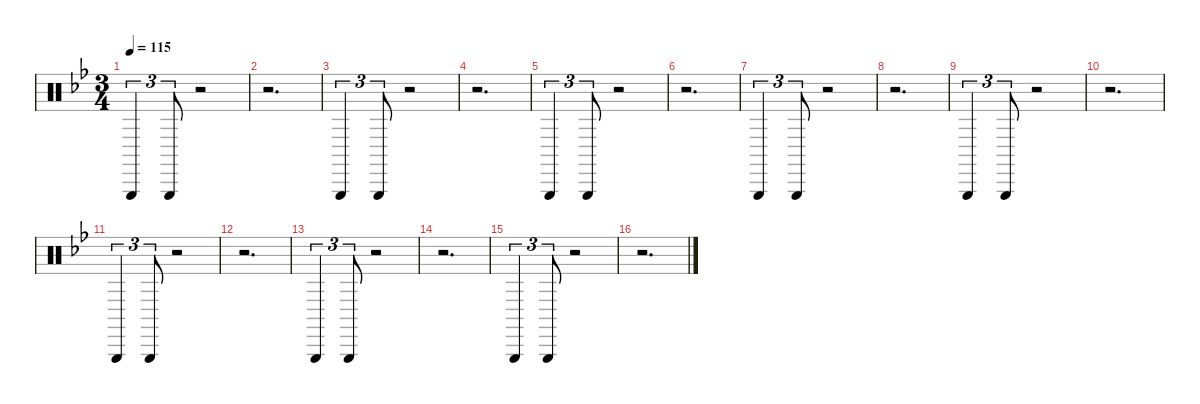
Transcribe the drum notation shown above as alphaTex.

\defaultSystemsLayout 4
\hideDynamics
\bracketExtendMode nobrackets
\singleTrackTrackNamePolicy hidden
\multiTrackTrackNamePolicy hidden
\firstSystemTrackNameMode fullname
\firstSystemTrackNameOrientation horizontal
\otherSystemsTrackNameOrientation horizontal
\track ("Percussion" "drm.") {defaultSystemsLayout 16 instrument percussion}
\staff {score}
\articulation defaults
\ts (3 4)
\tempo 115
\clef neutral
\ks gminor "Triangle (hit)"{acc forcenatural}.4{tu (3 2) dy mf beam Up} "Triangle (hit)"{acc forcenatural}.8{tu (3 2) dy p beam Up}
r.2{beam Up} |
r.2{d beam Down} |
"Triangle (hit)"{acc forcenatural}.4{tu (3 2) dy mf beam Up} "Triangle (hit)"{acc forcenatural}.8{tu (3 2) dy p beam Up} r.2{beam Up} |
r.2{d beam Down} |
"Triangle (hit)"{acc forcenatural}.4{tu (3 2) dy mf beam Up} "Triangle (hit)"{acc forcenatural}.8{tu (3 2) dy p beam Up} r.2{beam Up} |
r.2{d beam Down} |
"Triangle (hit)"{acc forcenatural}.4{tu (3 2) dy mf beam Up} "Triangle (hit)"{acc forcenatural}.8{tu (3 2) dy p beam Up} r.2{beam Up} |
r.2{d beam Down} |
"Triangle (hit)"{acc forcenatural}.4{tu (3 2) dy mf beam Up} "Triangle (hit)"{acc forcenatural}.8{tu (3 2) dy p beam Up} r.2{beam Up} |
r.2{d beam Down} |
"Triangle (hit)"{acc forcenatural}.4{tu (3 2) dy mf beam Up} "Triangle (hit)"{acc forcenatural}.8{tu (3 2) dy p beam Up} r.2{beam Up} |
r.2{d beam Down} |
"Triangle (hit)"{acc forcenatural}.4{tu (3 2) dy mf beam Up} "Triangle (hit)"{acc forcenatural}.8{tu (3 2) dy p beam Up} r.2{beam Up} |
r.2{d beam Down} |
"Triangle (hit)"{acc forcenatural}.4{tu (3 2) dy mf beam Up} "Triangle (hit)"{acc forcenatural}.8{tu (3 2) dy p beam Up} r.2{beam Up} |
r.2{d beam Down}
